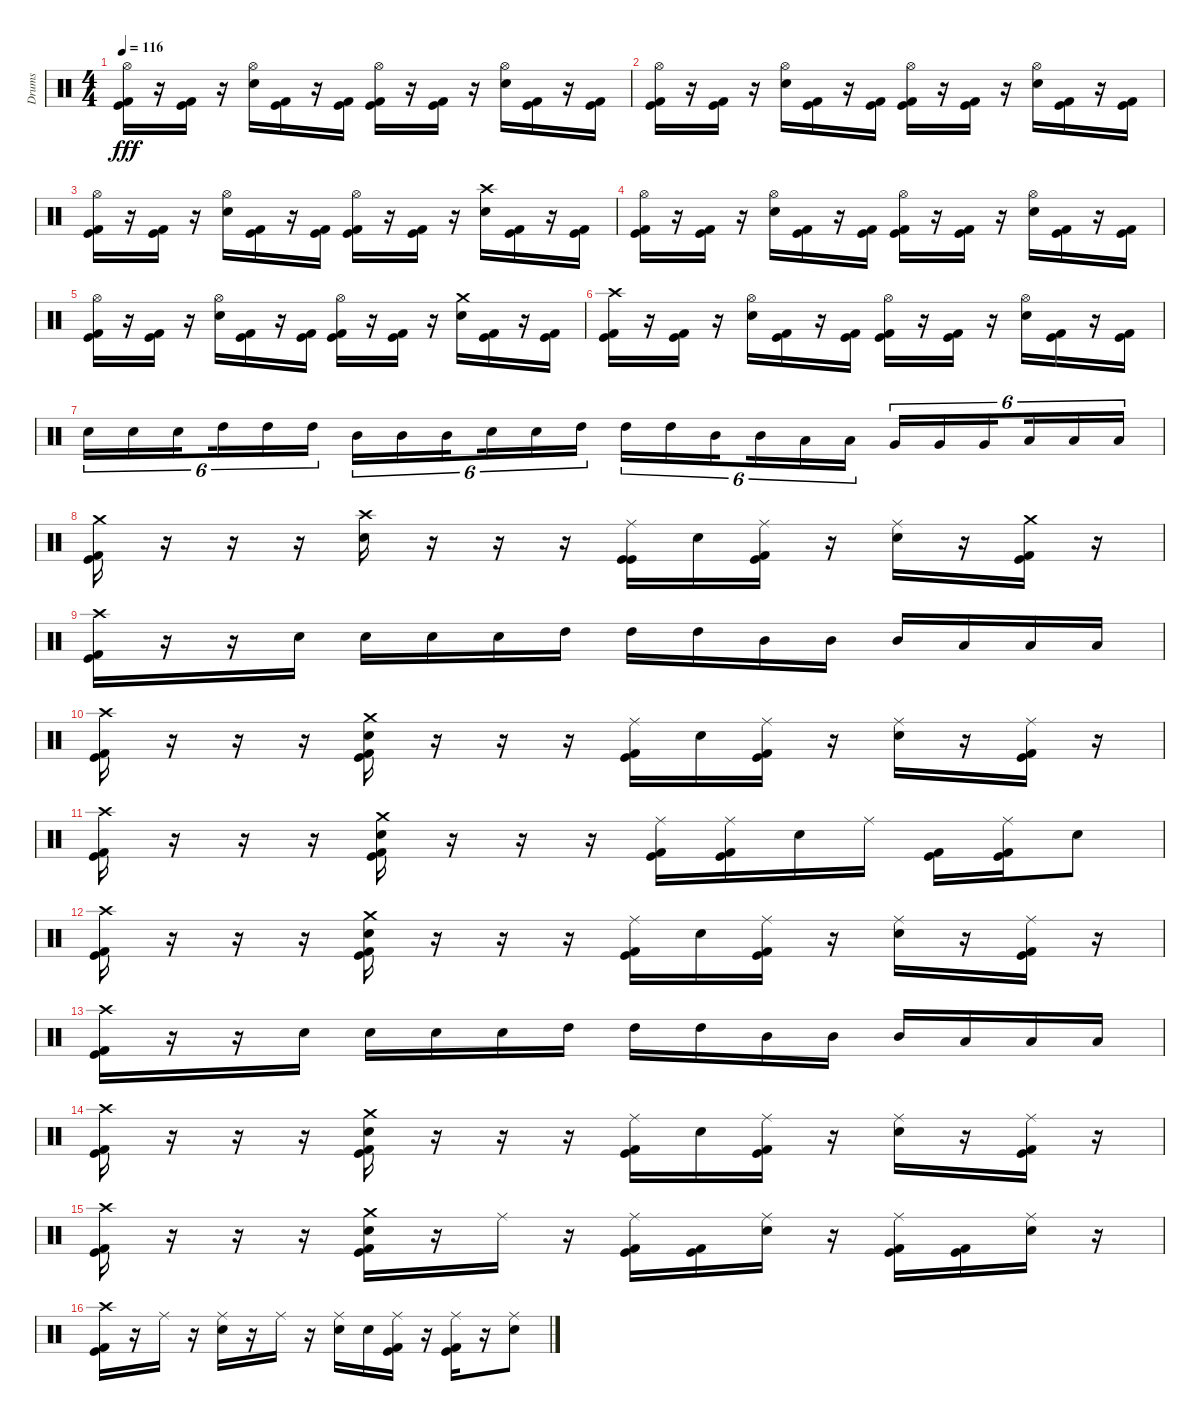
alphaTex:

\track ("Drums" "Drums") {instrument percussion}
\staff {score}
\articulation defaults
\ts (4 4)
\tempo 116
\clef neutral
\ks c
("Hi-Hat (open)" "Kick (hit)" "Kick (hit) 2").16{dy fff} r.16 ("Kick (hit)" "Kick (hit) 2").16 r.16 ("Hi-Hat (open)" "Snare (hit) 2").16 ("Kick (hit)" "Kick (hit) 2").16 r.16 ("Kick (hit)" "Kick (hit) 2").16 ("Hi-Hat (open)" "Kick (hit)" "Kick (hit) 2").16 r.16 ("Kick (hit)" "Kick (hit) 2").16 r.16 ("Hi-Hat (open)" "Snare (hit) 2").16 ("Kick (hit)" "Kick (hit) 2").16 r.16 ("Kick (hit)" "Kick (hit) 2").16 |
("Hi-Hat (open)" "Kick (hit)" "Kick (hit) 2").16 r.16 ("Kick (hit)" "Kick (hit) 2").16 r.16 ("Hi-Hat (open)" "Snare (hit) 2").16 ("Kick (hit)" "Kick (hit) 2").16 r.16 ("Kick (hit)" "Kick (hit) 2").16 ("Hi-Hat (open)" "Kick (hit)" "Kick (hit) 2").16 r.16 ("Kick (hit)" "Kick (hit) 2").16 r.16 ("Hi-Hat (open)" "Snare (hit) 2").16 ("Kick (hit)" "Kick (hit) 2").16 r.16 ("Kick (hit)" "Kick (hit) 2").16 |
("Hi-Hat (open)" "Kick (hit)" "Kick (hit) 2").16 r.16 ("Kick (hit)" "Kick (hit) 2").16 r.16 ("Hi-Hat (open)" "Snare (hit) 2").16 ("Kick (hit)" "Kick (hit) 2").16 r.16 ("Kick (hit)" "Kick (hit) 2").16 ("Hi-Hat (open)" "Kick (hit)" "Kick (hit) 2").16 r.16 ("Kick (hit)" "Kick (hit) 2").16 r.16 ("Crash high (hit)" "Snare (hit) 2").16 ("Kick (hit)" "Kick (hit) 2").16 r.16 ("Kick (hit)" "Kick (hit) 2").16 |
("Hi-Hat (open)" "Kick (hit)" "Kick (hit) 2").16 r.16 ("Kick (hit)" "Kick (hit) 2").16 r.16 ("Hi-Hat (open)" "Snare (hit) 2").16 ("Kick (hit)" "Kick (hit) 2").16 r.16 ("Kick (hit)" "Kick (hit) 2").16 ("Hi-Hat (open)" "Kick (hit)" "Kick (hit) 2").16 r.16 ("Kick (hit)" "Kick (hit) 2").16 r.16 ("Hi-Hat (open)" "Snare (hit) 2").16 ("Kick (hit)" "Kick (hit) 2").16 r.16 ("Kick (hit)" "Kick (hit) 2").16 |
("Hi-Hat (open)" "Kick (hit)" "Kick (hit) 2").16 r.16 ("Kick (hit)" "Kick (hit) 2").16 r.16 ("Hi-Hat (open)" "Snare (hit) 2").16 ("Kick (hit)" "Kick (hit) 2").16 r.16 ("Kick (hit)" "Kick (hit) 2").16 ("Hi-Hat (open)" "Kick (hit)" "Kick (hit) 2").16 r.16 ("Kick (hit)" "Kick (hit) 2").16 r.16 ("Crash medium (hit)" "Snare (hit) 2").16 ("Kick (hit)" "Kick (hit) 2").16 r.16 ("Kick (hit)" "Kick (hit) 2").16 |
("Crash high (hit)" "Kick (hit)" "Kick (hit) 2").16 r.16 ("Kick (hit)" "Kick (hit) 2").16 r.16 ("Hi-Hat (open)" "Snare (hit) 2").16 ("Kick (hit)" "Kick (hit) 2").16 r.16 ("Kick (hit)" "Kick (hit) 2").16 ("Hi-Hat (open)" "Kick (hit)" "Kick (hit) 2").16 r.16 ("Kick (hit)" "Kick (hit) 2").16 r.16 ("Hi-Hat (open)" "Snare (hit) 2").16 ("Kick (hit)" "Kick (hit) 2").16 r.16 ("Kick (hit)" "Kick (hit) 2").16 |
"Snare (hit) 2".16{tu (6 4)} "Snare (hit) 2".16{tu (6 4)} "Snare (hit) 2".16{tu (6 4) beam splitsecondary} "High Tom (hit)".16{tu (6 4)} "High Tom (hit)".16{tu (6 4)} "High Tom (hit)".16{tu (6 4)} "Mid Tom (hit)".16{tu (6 4)} "Mid Tom (hit)".16{tu (6 4)} "Mid Tom (hit)".16{tu (6 4) beam splitsecondary} "Snare (hit) 2".16{tu (6 4)} "Snare (hit) 2".16{tu (6 4)} "High Tom (hit)".16{tu (6 4)} "High Tom (hit)".16{tu (6 4)} "High Tom (hit)".16{tu (6 4)} "Mid Tom (hit)".16{tu (6 4) beam splitsecondary} "Mid Tom (hit)".16{tu (6 4)} "Low Tom (hit)".16{tu (6 4)} "Low Tom (hit)".16{tu (6 4)} "Very Low Tom (hit)".16{tu (6 4)} "Very Low Tom (hit)".16{tu (6 4)} "Very Low Tom (hit)".16{tu (6 4) beam splitsecondary} "Low Floor Tom (hit)".16{tu (6 4)} "Low Floor Tom (hit)".16{tu (6 4)} "Low Floor Tom (hit)".16{tu (6 4)} |
("Crash medium (hit)" "Kick (hit)" "Kick (hit) 2").16 r.16 r.16 r.16 ("Crash high (hit)" "Snare (hit) 2").16 r.16 r.16 r.16 ("Ride (middle)" "Kick (hit)" "Kick (hit)").16 "Snare (hit) 2".16 ("Ride (middle)" "Kick (hit)" "Kick (hit) 2").16 r.16 ("Ride (middle)" "Snare (hit) 2").16 r.16 ("Crash medium (hit)" "Kick (hit)" "Kick (hit) 2").16 r.16 |
("Crash high (hit)" "Kick (hit)" "Kick (hit) 2").16 r.16 r.16 "Snare (hit) 2".16 "Snare (hit) 2".16 "Snare (hit) 2".16 "Snare (hit) 2".16 "High Tom (hit)".16 "High Tom (hit)".16 "High Tom (hit)".16 "Mid Tom (hit)".16 "Mid Tom (hit)".16 "Mid Tom (hit)".16 "Low Tom (hit)".16 "Low Tom (hit)".16 "Low Tom (hit)".16 |
("Crash high (hit)" "Kick (hit)" "Kick (hit) 2").16 r.16 r.16 r.16 ("Crash medium (hit)" "Snare (hit) 2" "Kick (hit)" "Kick (hit) 2").16 r.16 r.16 r.16 ("Ride (middle)" "Kick (hit)" "Kick (hit) 2").16 "Snare (hit) 2".16 ("Ride (middle)" "Kick (hit)" "Kick (hit) 2").16 r.16 ("Ride (middle)" "Snare (hit) 2").16 r.16 ("Ride (middle)" "Kick (hit)" "Kick (hit) 2").16 r.16 |
("Crash high (hit)" "Kick (hit)" "Kick (hit) 2").16 r.16 r.16 r.16 ("Crash medium (hit)" "Snare (hit) 2" "Kick (hit)" "Kick (hit) 2").16 r.16 r.16 r.16 ("Ride (middle)" "Kick (hit)" "Kick (hit) 2").16 ("Ride (middle)" "Kick (hit)" "Kick (hit) 2").16 "Snare (hit) 2".16 "Ride (middle)".16 ("Kick (hit)" "Kick (hit) 2").16 ("Ride (middle)" "Kick (hit)" "Kick (hit) 2").16 "Snare (hit) 2".8 |
("Crash high (hit)" "Kick (hit)" "Kick (hit) 2").16 r.16 r.16 r.16 ("Crash medium (hit)" "Snare (hit) 2" "Kick (hit)" "Kick (hit) 2").16 r.16 r.16 r.16 ("Ride (middle)" "Kick (hit)" "Kick (hit) 2").16 "Snare (hit) 2".16 ("Ride (middle)" "Kick (hit)" "Kick (hit) 2").16 r.16 ("Ride (middle)" "Snare (hit) 2").16 r.16 ("Ride (middle)" "Kick (hit)" "Kick (hit) 2").16 r.16 |
("Crash high (hit)" "Kick (hit)" "Kick (hit) 2").16 r.16 r.16 "Snare (hit) 2".16 "Snare (hit) 2".16 "Snare (hit) 2".16 "Snare (hit) 2".16 "High Tom (hit)".16 "High Tom (hit)".16 "High Tom (hit)".16 "Mid Tom (hit)".16 "Mid Tom (hit)".16 "Mid Tom (hit)".16 "Low Tom (hit)".16 "Low Tom (hit)".16 "Low Tom (hit)".16 |
("Crash high (hit)" "Kick (hit)" "Kick (hit) 2").16 r.16 r.16 r.16 ("Crash medium (hit)" "Snare (hit) 2" "Kick (hit)" "Kick (hit) 2").16 r.16 r.16 r.16 ("Ride (middle)" "Kick (hit)" "Kick (hit) 2").16 "Snare (hit) 2".16 ("Ride (middle)" "Kick (hit)" "Kick (hit) 2").16 r.16 ("Ride (middle)" "Snare (hit) 2").16 r.16 ("Ride (middle)" "Kick (hit)" "Kick (hit) 2").16 r.16 |
("Crash high (hit)" "Kick (hit)" "Kick (hit) 2").16 r.16 r.16 r.16 ("Crash medium (hit)" "Snare (hit) 2" "Kick (hit)" "Kick (hit) 2").16 r.16 "Ride (middle)".16 r.16 ("Ride (middle)" "Kick (hit)" "Kick (hit) 2").16 ("Kick (hit)" "Kick (hit) 2").16 ("Ride (middle)" "Snare (hit) 2").16 r.16 ("Ride (middle)" "Kick (hit)" "Kick (hit) 2").16 ("Kick (hit)" "Kick (hit) 2").16 ("Ride (middle)" "Snare (hit) 2").16 r.16 |
("Crash high (hit)" "Kick (hit)" "Kick (hit) 2").16 r.16 "Ride (middle)".16 r.16 ("Ride (middle)" "Snare (hit) 2").16 r.16 "Ride (middle)".16 r.16 ("Ride (middle)" "Snare (hit) 2").16 "Snare (hit) 2".16 ("Ride (middle)" "Kick (hit)" "Kick (hit) 2").16 r.16 ("Ride (middle)" "Kick (hit)" "Kick (hit) 2").16 r.16 ("Ride (middle)" "Snare (hit) 2").8
